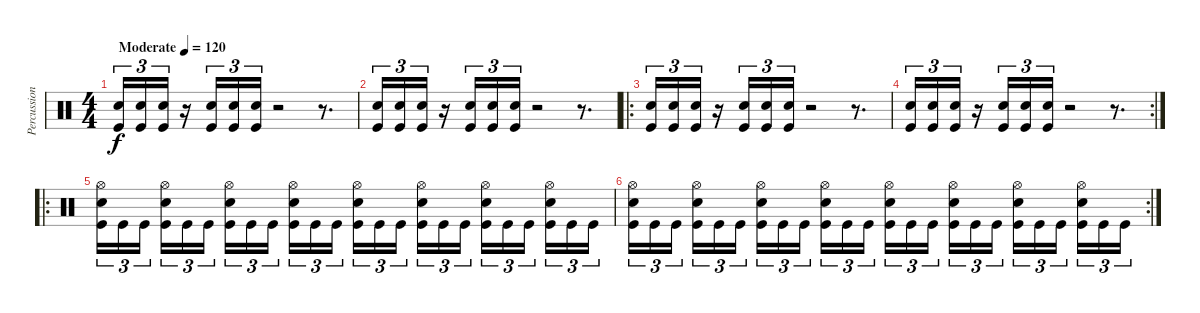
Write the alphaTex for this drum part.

\track ("Percussion" "Percussion") {instrument percussion}
\staff {score}
\articulation defaults
\ts (4 4)
\tempo (120 "Moderate")
\clef neutral
\ks c
("Snare (hit) 2" "Kick (hit)").16{tu (3 2) dy f} ("Snare (hit) 2" "Kick (hit)").16{tu (3 2)} ("Snare (hit) 2" "Kick (hit)").16{tu (3 2)} r.16 ("Snare (hit) 2" "Kick (hit)").16{tu (3 2)} ("Snare (hit) 2" "Kick (hit)").16{tu (3 2)} ("Snare (hit) 2" "Kick (hit)").16{tu (3 2)} r.2 r.8{d} |
("Snare (hit) 2" "Kick (hit)").16{tu (3 2)} ("Snare (hit) 2" "Kick (hit)").16{tu (3 2)} ("Snare (hit) 2" "Kick (hit)").16{tu (3 2)} r.16 ("Snare (hit) 2" "Kick (hit)").16{tu (3 2)} ("Snare (hit) 2" "Kick (hit)").16{tu (3 2)} ("Snare (hit) 2" "Kick (hit)").16{tu (3 2)} r.2 r.8{d} |
\ro
("Snare (hit) 2" "Kick (hit)").16{tu (3 2)} ("Snare (hit) 2" "Kick (hit)").16{tu (3 2)} ("Snare (hit) 2" "Kick (hit)").16{tu (3 2)} r.16 ("Snare (hit) 2" "Kick (hit)").16{tu (3 2)} ("Snare (hit) 2" "Kick (hit)").16{tu (3 2)} ("Snare (hit) 2" "Kick (hit)").16{tu (3 2)} r.2 r.8{d} |
\rc 2
("Snare (hit) 2" "Kick (hit)").16{tu (3 2)} ("Snare (hit) 2" "Kick (hit)").16{tu (3 2)} ("Snare (hit) 2" "Kick (hit)").16{tu (3 2)} r.16 ("Snare (hit) 2" "Kick (hit)").16{tu (3 2)} ("Snare (hit) 2" "Kick (hit)").16{tu (3 2)} ("Snare (hit) 2" "Kick (hit)").16{tu (3 2)} r.2 r.8{d} |
\ro
("Hi-Hat (open)" "Snare (hit) 2" "Kick (hit)").16{tu (3 2)} "Kick (hit)".16{tu (3 2)} "Kick (hit)".16{tu (3 2) beam splitsecondary} ("Hi-Hat (open)" "Snare (hit) 2" "Kick (hit)").16{tu (3 2)} "Kick (hit)".16{tu (3 2)} "Kick (hit)".16{tu (3 2)} ("Hi-Hat (open)" "Snare (hit) 2" "Kick (hit)").16{tu (3 2)} "Kick (hit)".16{tu (3 2)} "Kick (hit)".16{tu (3 2) beam splitsecondary} ("Hi-Hat (open)" "Snare (hit) 2" "Kick (hit)").16{tu (3 2)} "Kick (hit)".16{tu (3 2)} "Kick (hit)".16{tu (3 2)} ("Hi-Hat (open)" "Snare (hit) 2" "Kick (hit)").16{tu (3 2)} "Kick (hit)".16{tu (3 2)} "Kick (hit)".16{tu (3 2) beam splitsecondary} ("Hi-Hat (open)" "Snare (hit) 2" "Kick (hit)").16{tu (3 2)} "Kick (hit)".16{tu (3 2)} "Kick (hit)".16{tu (3 2)} ("Hi-Hat (open)" "Snare (hit) 2" "Kick (hit)").16{tu (3 2)} "Kick (hit)".16{tu (3 2)} "Kick (hit)".16{tu (3 2) beam splitsecondary} ("Hi-Hat (open)" "Snare (hit) 2" "Kick (hit)").16{tu (3 2)} "Kick (hit)".16{tu (3 2)} "Kick (hit)".16{tu (3 2)} |
\rc 2
("Hi-Hat (open)" "Snare (hit) 2" "Kick (hit)").16{tu (3 2)} "Kick (hit)".16{tu (3 2)} "Kick (hit)".16{tu (3 2) beam splitsecondary} ("Hi-Hat (open)" "Snare (hit) 2" "Kick (hit)").16{tu (3 2)} "Kick (hit)".16{tu (3 2)} "Kick (hit)".16{tu (3 2)} ("Hi-Hat (open)" "Snare (hit) 2" "Kick (hit)").16{tu (3 2)} "Kick (hit)".16{tu (3 2)} "Kick (hit)".16{tu (3 2) beam splitsecondary} ("Hi-Hat (open)" "Snare (hit) 2" "Kick (hit)").16{tu (3 2)} "Kick (hit)".16{tu (3 2)} "Kick (hit)".16{tu (3 2)} ("Hi-Hat (open)" "Snare (hit) 2" "Kick (hit)").16{tu (3 2)} "Kick (hit)".16{tu (3 2)} "Kick (hit)".16{tu (3 2) beam splitsecondary} ("Hi-Hat (open)" "Snare (hit) 2" "Kick (hit)").16{tu (3 2)} "Kick (hit)".16{tu (3 2)} "Kick (hit)".16{tu (3 2)} ("Hi-Hat (open)" "Snare (hit) 2" "Kick (hit)").16{tu (3 2)} "Kick (hit)".16{tu (3 2)} "Kick (hit)".16{tu (3 2) beam splitsecondary} ("Hi-Hat (open)" "Snare (hit) 2" "Kick (hit)").16{tu (3 2)} "Kick (hit)".16{tu (3 2)} "Kick (hit)".16{tu (3 2)}
